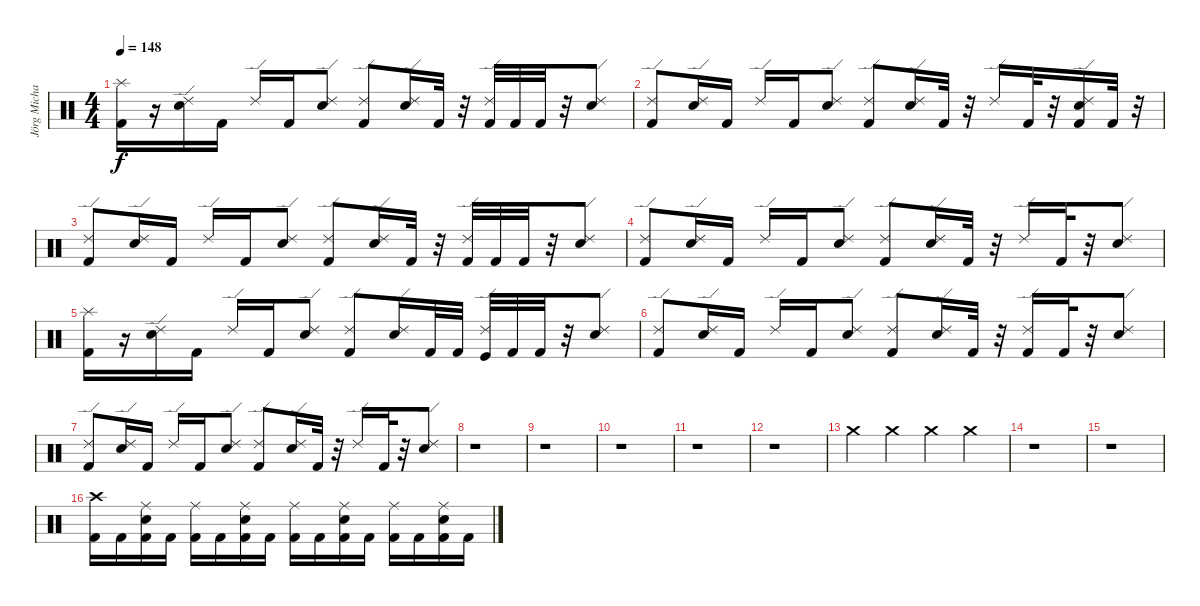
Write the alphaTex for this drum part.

\track ("Jörg Michael" "Jörg Micha") {instrument percussion}
\staff {score}
\articulation defaults
\ts (4 4)
\tempo 148
\clef neutral
\ks c
("Splash (hit)" "Kick (hit) 2").16{dy f} r.16 ("Electric Snare (hit)" "Ride (edge) 2").16 "Kick (hit) 2".16 "Ride (edge) 2".16 "Kick (hit) 2".16 ("Electric Snare (hit)" "Ride (edge) 2").8 ("Kick (hit) 2" "Ride (edge) 2").8 ("Electric Snare (hit)" "Ride (edge) 2").16 "Kick (hit) 2".32 r.32 ("Kick (hit) 2" "Ride (edge) 2").32 "Kick (hit) 2".32 "Kick (hit) 2".32 r.32 ("Ride (edge) 2" "Electric Snare (hit)").8 |
("Kick (hit) 2" "Ride (edge) 2").8 ("Ride (edge) 2" "Electric Snare (hit)").16 "Kick (hit) 2".16 "Ride (edge) 2".16 "Kick (hit) 2".16 ("Electric Snare (hit)" "Ride (edge) 2").8 ("Ride (edge) 2" "Kick (hit) 2").8 ("Ride (edge) 2" "Electric Snare (hit)").16 "Kick (hit) 2".32 r.32 "Ride (edge) 2".16 "Kick (hit) 2".32 r.32 ("Kick (hit) 2" "Electric Snare (hit)" "Ride (edge) 2").16 "Kick (hit) 2".32 r.32 |
("Kick (hit) 2" "Ride (edge) 2").8 ("Ride (edge) 2" "Electric Snare (hit)").16 "Kick (hit) 2".16 "Ride (edge) 2".16 "Kick (hit) 2".16 ("Electric Snare (hit)" "Ride (edge) 2").8 ("Kick (hit) 2" "Ride (edge) 2").8 ("Electric Snare (hit)" "Ride (edge) 2").16 "Kick (hit) 2".32 r.32 ("Kick (hit) 2" "Ride (edge) 2").32 "Kick (hit) 2".32 "Kick (hit) 2".32 r.32 ("Ride (edge) 2" "Electric Snare (hit)").8 |
("Kick (hit) 2" "Ride (edge) 2").8 ("Electric Snare (hit)" "Ride (edge) 2").16 "Kick (hit) 2".16 "Ride (edge) 2".16 "Kick (hit) 2".16 ("Electric Snare (hit)" "Ride (edge) 2").8 ("Kick (hit) 2" "Ride (edge) 2").8 ("Electric Snare (hit)" "Ride (edge) 2").16 "Kick (hit) 2".32 r.32 "Ride (edge) 2".16 "Kick (hit) 2".32 r.32 ("Electric Snare (hit)" "Ride (edge) 2").8 |
("Splash (hit)" "Kick (hit) 2").16 r.16 ("Electric Snare (hit)" "Ride (edge) 2").16 "Kick (hit) 2".16 "Ride (edge) 2".16 "Kick (hit) 2".16 ("Electric Snare (hit)" "Ride (edge) 2").8 ("Kick (hit) 2" "Ride (edge) 2").8 ("Electric Snare (hit)" "Ride (edge) 2").16 "Kick (hit) 2".32 "Kick (hit) 2".32 ("Kick (hit)" "Ride (edge) 2").32 "Kick (hit) 2".32 "Kick (hit) 2".32 r.32 ("Ride (edge) 2" "Electric Snare (hit)").8 |
("Kick (hit) 2" "Ride (edge) 2").8 ("Electric Snare (hit)" "Ride (edge) 2").16 "Kick (hit) 2".16 "Ride (edge) 2".16 "Kick (hit) 2".16 ("Electric Snare (hit)" "Ride (edge) 2").8 ("Ride (edge) 2" "Kick (hit) 2").8 ("Electric Snare (hit)" "Ride (edge) 2").16 "Kick (hit) 2".32 r.32 ("Kick (hit) 2" "Ride (edge) 2").16 "Kick (hit) 2".32 r.32 ("Ride (edge) 2" "Electric Snare (hit)").8 |
("Kick (hit) 2" "Ride (edge) 2").8 ("Electric Snare (hit)" "Ride (edge) 2").16 "Kick (hit) 2".16 "Ride (edge) 2".16 "Kick (hit) 2".16 ("Ride (edge) 2" "Electric Snare (hit)").8 ("Kick (hit) 2" "Ride (edge) 2").8 ("Ride (edge) 2" "Electric Snare (hit)").16 "Kick (hit) 2".32 r.32 "Ride (edge) 2".16 "Kick (hit) 2".32 r.32 ("Electric Snare (hit)" "Ride (edge) 2").8 |
r.1 |
r.1 |
r.1 |
r.1 |
r.1 |
"Crash medium (hit)".4 "Crash medium (hit)".4 "Crash medium (hit)".4 "Crash medium (hit)".4 |
r.1 |
r.1 |
("Kick (hit) 2" "Crash high (hit)").16 "Kick (hit) 2".16 ("Electric Snare (hit)" "Kick (hit) 2" "Ride (middle)").16 "Kick (hit) 2".16 ("Kick (hit) 2" "Ride (middle)").16 "Kick (hit) 2".16 ("Electric Snare (hit)" "Kick (hit) 2" "Ride (middle)").16 "Kick (hit) 2".16 ("Kick (hit) 2" "Ride (middle)").16 "Kick (hit) 2".16 ("Electric Snare (hit)" "Kick (hit) 2" "Ride (middle)").16 "Kick (hit) 2".16 ("Kick (hit) 2" "Ride (middle)").16 "Kick (hit) 2".16 ("Electric Snare (hit)" "Kick (hit) 2" "Ride (middle)").16 "Kick (hit) 2".16
